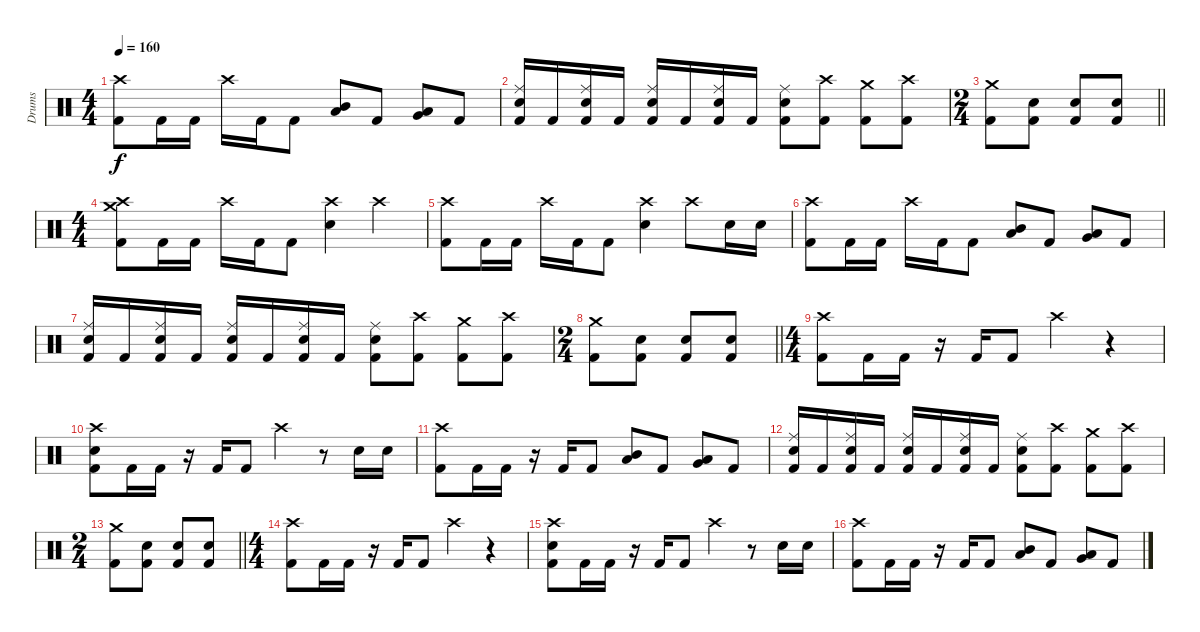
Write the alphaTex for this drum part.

\track ("Drums" "Drums") {instrument percussion}
\staff {score}
\articulation defaults
\ts (4 4)
\tempo 160
\clef neutral
\ks c
("Crash high (hit)" "Kick (hit) 2").8{dy f} "Kick (hit) 2".16 "Kick (hit) 2".16 "Crash high (hit)".16 "Kick (hit) 2".16 "Kick (hit) 2".8 ("Mid Tom (hit)" "Low Tom (hit)").8 "Kick (hit) 2".8 ("Low Tom (hit)" "Very Low Tom (hit)").8 "Kick (hit) 2".8 |
("Ride (middle)" "Electric Snare (hit)" "Kick (hit) 2").16 "Kick (hit) 2".16 ("Ride (middle)" "Electric Snare (hit)" "Kick (hit) 2").16 "Kick (hit) 2".16 ("Ride (middle)" "Electric Snare (hit)" "Kick (hit) 2").16 "Kick (hit) 2".16 ("Ride (middle)" "Electric Snare (hit)" "Kick (hit) 2").16 "Kick (hit) 2".16 ("Ride (middle)" "Electric Snare (hit)" "Kick (hit) 2").8 ("Crash high (hit)" "Kick (hit) 2").8 ("Crash medium (hit)" "Kick (hit) 2").8 ("Crash high (hit)" "Kick (hit) 2").8 |
\ts (2 4)
\barLineRight lightlight
("Crash medium (hit)" "Kick (hit) 2").8 ("Electric Snare (hit)" "Kick (hit) 2").8 ("Electric Snare (hit)" "Kick (hit) 2").8 ("Electric Snare (hit)" "Kick (hit) 2").8 |
\ts (4 4)
("Crash high (hit)" "Crash medium (hit)" "Kick (hit) 2").8 "Kick (hit) 2".16 "Kick (hit) 2".16 "Crash high (hit)".16 "Kick (hit) 2".16 "Kick (hit) 2".8 ("Crash high (hit)" "Electric Snare (hit)").4 "Crash high (hit)".4 |
("Crash high (hit)" "Kick (hit) 2").8 "Kick (hit) 2".16 "Kick (hit) 2".16 "Crash high (hit)".16 "Kick (hit) 2".16 "Kick (hit) 2".8 ("Crash high (hit)" "Electric Snare (hit)").4 "Crash high (hit)".8 "Electric Snare (hit)".16 "Electric Snare (hit)".16 |
("Crash high (hit)" "Kick (hit) 2").8 "Kick (hit) 2".16 "Kick (hit) 2".16 "Crash high (hit)".16 "Kick (hit) 2".16 "Kick (hit) 2".8 ("Mid Tom (hit)" "Low Tom (hit)").8 "Kick (hit) 2".8 ("Low Tom (hit)" "Very Low Tom (hit)").8 "Kick (hit) 2".8 |
("Ride (middle)" "Electric Snare (hit)" "Kick (hit) 2").16 "Kick (hit) 2".16 ("Ride (middle)" "Electric Snare (hit)" "Kick (hit) 2").16 "Kick (hit) 2".16 ("Ride (middle)" "Electric Snare (hit)" "Kick (hit) 2").16 "Kick (hit) 2".16 ("Ride (middle)" "Electric Snare (hit)" "Kick (hit) 2").16 "Kick (hit) 2".16 ("Ride (middle)" "Electric Snare (hit)" "Kick (hit) 2").8 ("Crash high (hit)" "Kick (hit) 2").8 ("Crash medium (hit)" "Kick (hit) 2").8 ("Crash high (hit)" "Kick (hit) 2").8 |
\ts (2 4)
\barLineRight lightlight
("Crash medium (hit)" "Kick (hit) 2").8 ("Electric Snare (hit)" "Kick (hit) 2").8 ("Electric Snare (hit)" "Kick (hit) 2").8 ("Electric Snare (hit)" "Kick (hit) 2").8 |
\ts (4 4)
("Crash high (hit)" "Kick (hit) 2").8 "Kick (hit) 2".16 "Kick (hit) 2".16 r.16 "Kick (hit) 2".16 "Kick (hit) 2".8 "Crash high (hit)".4 r.4 |
("Crash high (hit)" "Electric Snare (hit)" "Kick (hit) 2").8 "Kick (hit) 2".16 "Kick (hit) 2".16 r.16 "Kick (hit) 2".16 "Kick (hit) 2".8 "Crash high (hit)".4 r.8 "Electric Snare (hit)".16 "Electric Snare (hit)".16 |
("Crash high (hit)" "Kick (hit) 2").8 "Kick (hit) 2".16 "Kick (hit) 2".16 r.16 "Kick (hit) 2".16 "Kick (hit) 2".8 ("Mid Tom (hit)" "Low Tom (hit)").8 "Kick (hit) 2".8 ("Low Tom (hit)" "Very Low Tom (hit)").8 "Kick (hit) 2".8 |
("Ride (middle)" "Electric Snare (hit)" "Kick (hit) 2").16 "Kick (hit) 2".16 ("Ride (middle)" "Electric Snare (hit)" "Kick (hit) 2").16 "Kick (hit) 2".16 ("Ride (middle)" "Electric Snare (hit)" "Kick (hit) 2").16 "Kick (hit) 2".16 ("Ride (middle)" "Electric Snare (hit)" "Kick (hit) 2").16 "Kick (hit) 2".16 ("Ride (middle)" "Electric Snare (hit)" "Kick (hit) 2").8 ("Crash high (hit)" "Kick (hit) 2").8 ("Crash medium (hit)" "Kick (hit) 2").8 ("Crash high (hit)" "Kick (hit) 2").8 |
\ts (2 4)
\barLineRight lightlight
("Crash medium (hit)" "Kick (hit) 2").8 ("Electric Snare (hit)" "Kick (hit) 2").8 ("Electric Snare (hit)" "Kick (hit) 2").8 ("Electric Snare (hit)" "Kick (hit) 2").8 |
\ts (4 4)
("Crash high (hit)" "Kick (hit) 2").8 "Kick (hit) 2".16 "Kick (hit) 2".16 r.16 "Kick (hit) 2".16 "Kick (hit) 2".8 "Crash high (hit)".4 r.4 |
("Crash high (hit)" "Electric Snare (hit)" "Kick (hit) 2").8 "Kick (hit) 2".16 "Kick (hit) 2".16 r.16 "Kick (hit) 2".16 "Kick (hit) 2".8 "Crash high (hit)".4 r.8 "Electric Snare (hit)".16 "Electric Snare (hit)".16 |
("Crash high (hit)" "Kick (hit) 2").8 "Kick (hit) 2".16 "Kick (hit) 2".16 r.16 "Kick (hit) 2".16 "Kick (hit) 2".8 ("Mid Tom (hit)" "Low Tom (hit)").8 "Kick (hit) 2".8 ("Low Tom (hit)" "Very Low Tom (hit)").8 "Kick (hit) 2".8
